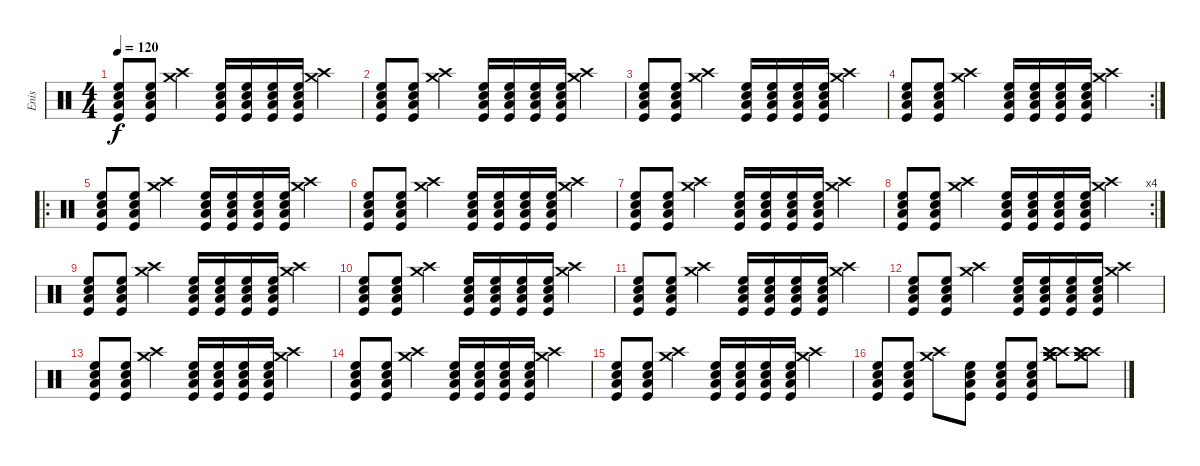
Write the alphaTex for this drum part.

\track ("Enis" "Enis") {instrument percussion}
\staff {score}
\articulation defaults
\ts (4 4)
\tempo 120
\clef neutral
\ks c
("High Floor Tom (hit)" "Snare (hit) 2" "Low Floor Tom (hit)" "Kick (hit)").8{dy f} ("High Floor Tom (hit)" "Snare (hit) 2" "Low Floor Tom (hit)" "Kick (hit)").8 ("Crash medium (hit)" "Crash high (hit)").4 ("High Floor Tom (hit)" "Snare (hit) 2" "Kick (hit)" "Low Floor Tom (hit)").16 ("High Floor Tom (hit)" "Snare (hit) 2" "Kick (hit)" "Low Floor Tom (hit)").16 ("High Floor Tom (hit)" "Snare (hit) 2" "Kick (hit)" "Low Floor Tom (hit)").16 ("High Floor Tom (hit)" "Snare (hit) 2" "Kick (hit)" "Low Floor Tom (hit)").16 ("Crash high (hit)" "Crash medium (hit)").4 |
("High Floor Tom (hit)" "Snare (hit) 2" "Low Floor Tom (hit)" "Kick (hit)").8 ("High Floor Tom (hit)" "Snare (hit) 2" "Low Floor Tom (hit)" "Kick (hit)").8 ("Crash medium (hit)" "Crash high (hit)").4 ("High Floor Tom (hit)" "Snare (hit) 2" "Kick (hit)" "Low Floor Tom (hit)").16 ("High Floor Tom (hit)" "Snare (hit) 2" "Kick (hit)" "Low Floor Tom (hit)").16 ("High Floor Tom (hit)" "Snare (hit) 2" "Kick (hit)" "Low Floor Tom (hit)").16 ("High Floor Tom (hit)" "Snare (hit) 2" "Kick (hit)" "Low Floor Tom (hit)").16 ("Crash high (hit)" "Crash medium (hit)").4 |
("High Floor Tom (hit)" "Snare (hit) 2" "Low Floor Tom (hit)" "Kick (hit)").8 ("High Floor Tom (hit)" "Snare (hit) 2" "Low Floor Tom (hit)" "Kick (hit)").8 ("Crash medium (hit)" "Crash high (hit)").4 ("High Floor Tom (hit)" "Snare (hit) 2" "Kick (hit)" "Low Floor Tom (hit)").16 ("High Floor Tom (hit)" "Snare (hit) 2" "Kick (hit)" "Low Floor Tom (hit)").16 ("High Floor Tom (hit)" "Snare (hit) 2" "Kick (hit)" "Low Floor Tom (hit)").16 ("High Floor Tom (hit)" "Snare (hit) 2" "Kick (hit)" "Low Floor Tom (hit)").16 ("Crash high (hit)" "Crash medium (hit)").4 |
\rc 2
("High Floor Tom (hit)" "Snare (hit) 2" "Low Floor Tom (hit)" "Kick (hit)").8 ("High Floor Tom (hit)" "Snare (hit) 2" "Low Floor Tom (hit)" "Kick (hit)").8 ("Crash medium (hit)" "Crash high (hit)").4 ("High Floor Tom (hit)" "Snare (hit) 2" "Kick (hit)" "Low Floor Tom (hit)").16 ("High Floor Tom (hit)" "Snare (hit) 2" "Kick (hit)" "Low Floor Tom (hit)").16 ("High Floor Tom (hit)" "Snare (hit) 2" "Kick (hit)" "Low Floor Tom (hit)").16 ("High Floor Tom (hit)" "Snare (hit) 2" "Kick (hit)" "Low Floor Tom (hit)").16 ("Crash high (hit)" "Crash medium (hit)").4 |
\ro
("High Floor Tom (hit)" "Snare (hit) 2" "Low Floor Tom (hit)" "Kick (hit)").8 ("High Floor Tom (hit)" "Snare (hit) 2" "Low Floor Tom (hit)" "Kick (hit)").8 ("Crash medium (hit)" "Crash high (hit)").4 ("High Floor Tom (hit)" "Snare (hit) 2" "Kick (hit)" "Low Floor Tom (hit)").16 ("High Floor Tom (hit)" "Snare (hit) 2" "Kick (hit)" "Low Floor Tom (hit)").16 ("High Floor Tom (hit)" "Snare (hit) 2" "Kick (hit)" "Low Floor Tom (hit)").16 ("High Floor Tom (hit)" "Snare (hit) 2" "Kick (hit)" "Low Floor Tom (hit)").16 ("Crash high (hit)" "Crash medium (hit)").4 |
("High Floor Tom (hit)" "Snare (hit) 2" "Low Floor Tom (hit)" "Kick (hit)").8 ("High Floor Tom (hit)" "Snare (hit) 2" "Low Floor Tom (hit)" "Kick (hit)").8 ("Crash medium (hit)" "Crash high (hit)").4 ("High Floor Tom (hit)" "Snare (hit) 2" "Kick (hit)" "Low Floor Tom (hit)").16 ("High Floor Tom (hit)" "Snare (hit) 2" "Kick (hit)" "Low Floor Tom (hit)").16 ("High Floor Tom (hit)" "Snare (hit) 2" "Kick (hit)" "Low Floor Tom (hit)").16 ("High Floor Tom (hit)" "Snare (hit) 2" "Kick (hit)" "Low Floor Tom (hit)").16 ("Crash high (hit)" "Crash medium (hit)").4 |
("High Floor Tom (hit)" "Snare (hit) 2" "Low Floor Tom (hit)" "Kick (hit)").8 ("High Floor Tom (hit)" "Snare (hit) 2" "Low Floor Tom (hit)" "Kick (hit)").8 ("Crash medium (hit)" "Crash high (hit)").4 ("High Floor Tom (hit)" "Snare (hit) 2" "Kick (hit)" "Low Floor Tom (hit)").16 ("High Floor Tom (hit)" "Snare (hit) 2" "Kick (hit)" "Low Floor Tom (hit)").16 ("High Floor Tom (hit)" "Snare (hit) 2" "Kick (hit)" "Low Floor Tom (hit)").16 ("High Floor Tom (hit)" "Snare (hit) 2" "Kick (hit)" "Low Floor Tom (hit)").16 ("Crash high (hit)" "Crash medium (hit)").4 |
\rc 4
("High Floor Tom (hit)" "Snare (hit) 2" "Low Floor Tom (hit)" "Kick (hit)").8 ("High Floor Tom (hit)" "Snare (hit) 2" "Low Floor Tom (hit)" "Kick (hit)").8 ("Crash medium (hit)" "Crash high (hit)").4 ("High Floor Tom (hit)" "Snare (hit) 2" "Kick (hit)" "Low Floor Tom (hit)").16 ("High Floor Tom (hit)" "Snare (hit) 2" "Kick (hit)" "Low Floor Tom (hit)").16 ("High Floor Tom (hit)" "Snare (hit) 2" "Kick (hit)" "Low Floor Tom (hit)").16 ("High Floor Tom (hit)" "Snare (hit) 2" "Kick (hit)" "Low Floor Tom (hit)").16 ("Crash high (hit)" "Crash medium (hit)").4 |
("High Floor Tom (hit)" "Snare (hit) 2" "Low Floor Tom (hit)" "Kick (hit)").8 ("High Floor Tom (hit)" "Snare (hit) 2" "Low Floor Tom (hit)" "Kick (hit)").8 ("Crash medium (hit)" "Crash high (hit)").4 ("High Floor Tom (hit)" "Snare (hit) 2" "Kick (hit)" "Low Floor Tom (hit)").16 ("High Floor Tom (hit)" "Snare (hit) 2" "Kick (hit)" "Low Floor Tom (hit)").16 ("High Floor Tom (hit)" "Snare (hit) 2" "Kick (hit)" "Low Floor Tom (hit)").16 ("High Floor Tom (hit)" "Snare (hit) 2" "Kick (hit)" "Low Floor Tom (hit)").16 ("Crash high (hit)" "Crash medium (hit)").4 |
("High Floor Tom (hit)" "Snare (hit) 2" "Low Floor Tom (hit)" "Kick (hit)").8 ("High Floor Tom (hit)" "Snare (hit) 2" "Low Floor Tom (hit)" "Kick (hit)").8 ("Crash medium (hit)" "Crash high (hit)").4 ("High Floor Tom (hit)" "Snare (hit) 2" "Kick (hit)" "Low Floor Tom (hit)").16 ("High Floor Tom (hit)" "Snare (hit) 2" "Kick (hit)" "Low Floor Tom (hit)").16 ("High Floor Tom (hit)" "Snare (hit) 2" "Kick (hit)" "Low Floor Tom (hit)").16 ("High Floor Tom (hit)" "Snare (hit) 2" "Kick (hit)" "Low Floor Tom (hit)").16 ("Crash high (hit)" "Crash medium (hit)").4 |
("High Floor Tom (hit)" "Snare (hit) 2" "Low Floor Tom (hit)" "Kick (hit)").8 ("High Floor Tom (hit)" "Snare (hit) 2" "Low Floor Tom (hit)" "Kick (hit)").8 ("Crash medium (hit)" "Crash high (hit)").4 ("High Floor Tom (hit)" "Snare (hit) 2" "Kick (hit)" "Low Floor Tom (hit)").16 ("High Floor Tom (hit)" "Snare (hit) 2" "Kick (hit)" "Low Floor Tom (hit)").16 ("High Floor Tom (hit)" "Snare (hit) 2" "Kick (hit)" "Low Floor Tom (hit)").16 ("High Floor Tom (hit)" "Snare (hit) 2" "Kick (hit)" "Low Floor Tom (hit)").16 ("Crash high (hit)" "Crash medium (hit)").4 |
("High Floor Tom (hit)" "Snare (hit) 2" "Low Floor Tom (hit)" "Kick (hit)").8 ("High Floor Tom (hit)" "Snare (hit) 2" "Low Floor Tom (hit)" "Kick (hit)").8 ("Crash medium (hit)" "Crash high (hit)").4 ("High Floor Tom (hit)" "Snare (hit) 2" "Kick (hit)" "Low Floor Tom (hit)").16 ("High Floor Tom (hit)" "Snare (hit) 2" "Kick (hit)" "Low Floor Tom (hit)").16 ("High Floor Tom (hit)" "Snare (hit) 2" "Kick (hit)" "Low Floor Tom (hit)").16 ("High Floor Tom (hit)" "Snare (hit) 2" "Kick (hit)" "Low Floor Tom (hit)").16 ("Crash high (hit)" "Crash medium (hit)").4 |
("High Floor Tom (hit)" "Snare (hit) 2" "Low Floor Tom (hit)" "Kick (hit)").8 ("High Floor Tom (hit)" "Snare (hit) 2" "Low Floor Tom (hit)" "Kick (hit)").8 ("Crash medium (hit)" "Crash high (hit)").4 ("High Floor Tom (hit)" "Snare (hit) 2" "Kick (hit)" "Low Floor Tom (hit)").16 ("High Floor Tom (hit)" "Snare (hit) 2" "Kick (hit)" "Low Floor Tom (hit)").16 ("High Floor Tom (hit)" "Snare (hit) 2" "Kick (hit)" "Low Floor Tom (hit)").16 ("High Floor Tom (hit)" "Snare (hit) 2" "Kick (hit)" "Low Floor Tom (hit)").16 ("Crash high (hit)" "Crash medium (hit)").4 |
("High Floor Tom (hit)" "Snare (hit) 2" "Low Floor Tom (hit)" "Kick (hit)").8 ("High Floor Tom (hit)" "Snare (hit) 2" "Low Floor Tom (hit)" "Kick (hit)").8 ("Crash medium (hit)" "Crash high (hit)").4 ("High Floor Tom (hit)" "Snare (hit) 2" "Kick (hit)" "Low Floor Tom (hit)").16 ("High Floor Tom (hit)" "Snare (hit) 2" "Kick (hit)" "Low Floor Tom (hit)").16 ("High Floor Tom (hit)" "Snare (hit) 2" "Kick (hit)" "Low Floor Tom (hit)").16 ("High Floor Tom (hit)" "Snare (hit) 2" "Kick (hit)" "Low Floor Tom (hit)").16 ("Crash high (hit)" "Crash medium (hit)").4 |
("High Floor Tom (hit)" "Snare (hit) 2" "Low Floor Tom (hit)" "Kick (hit)").8 ("High Floor Tom (hit)" "Snare (hit) 2" "Low Floor Tom (hit)" "Kick (hit)").8 ("Crash medium (hit)" "Crash high (hit)").4 ("High Floor Tom (hit)" "Snare (hit) 2" "Kick (hit)" "Low Floor Tom (hit)").16 ("High Floor Tom (hit)" "Snare (hit) 2" "Kick (hit)" "Low Floor Tom (hit)").16 ("High Floor Tom (hit)" "Snare (hit) 2" "Kick (hit)" "Low Floor Tom (hit)").16 ("High Floor Tom (hit)" "Snare (hit) 2" "Kick (hit)" "Low Floor Tom (hit)").16 ("Crash high (hit)" "Crash medium (hit)").4 |
("High Floor Tom (hit)" "Snare (hit) 2" "Low Floor Tom (hit)" "Kick (hit)").8 ("High Floor Tom (hit)" "Snare (hit) 2" "Low Floor Tom (hit)" "Kick (hit)").8 ("Crash medium (hit)" "Crash high (hit)").8 ("High Floor Tom (hit)" "Snare (hit) 2" "Kick (hit)" "Low Floor Tom (hit)").8 ("High Floor Tom (hit)" "Snare (hit) 2" "Kick (hit)" "Low Floor Tom (hit)").8 ("High Floor Tom (hit)" "Snare (hit) 2" "Kick (hit)" "Low Floor Tom (hit)").8 ("Crash medium (hit)" "Crash high (hit)" "Crash high (hit)" "Crash high (hit)" "Crash medium (hit)" "Crash medium (hit)").8 ("Crash medium (hit)" "Crash high (hit)" "Crash high (hit)" "Crash high (hit)" "Crash medium (hit)" "Crash medium (hit)").8
